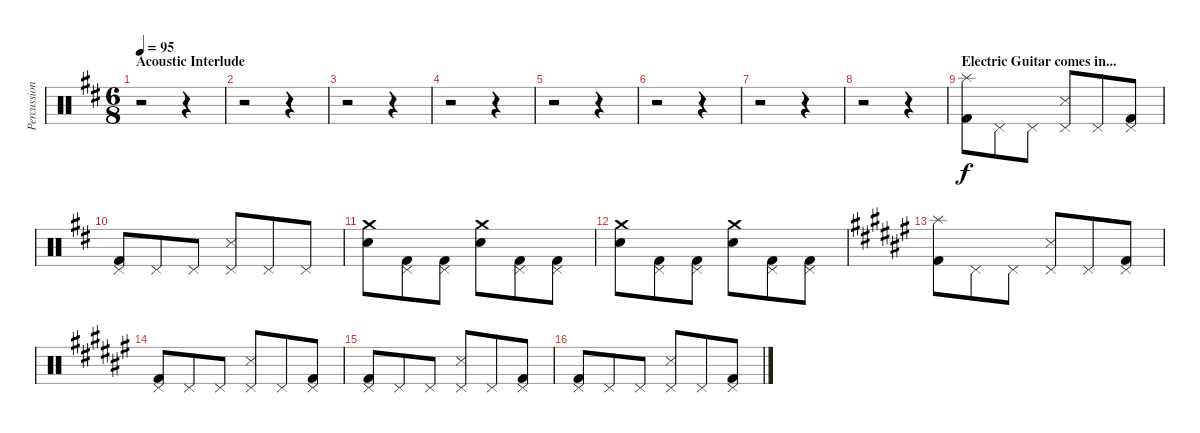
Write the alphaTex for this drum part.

\track ("Percussions" "Percussion") {instrument percussion}
\staff {score}
\articulation defaults
\ts (6 8)
\section ("" "Acoustic Interlude")
\tempo 95
\clef neutral
\ks d
r.2{dy f} r.4 |
r.2 r.4 |
r.2 r.4 |
r.2 r.4 |
r.2 r.4 |
r.2 r.4 |
r.2 r.4 |
r.2 r.4 |
\section ("" "Electric Guitar comes in...")
("Splash (hit)" "Kick (hit) 2").8 "Pedal Hi-Hat (hit)".8 "Pedal Hi-Hat (hit)".8 ("Pedal Hi-Hat (hit)" "Snare (side stick) 3").8 "Pedal Hi-Hat (hit)".8 ("Pedal Hi-Hat (hit)" "Kick (hit) 2").8 |
("Pedal Hi-Hat (hit)" "Kick (hit) 2").8 "Pedal Hi-Hat (hit)".8 "Pedal Hi-Hat (hit)".8 ("Pedal Hi-Hat (hit)" "Snare (side stick) 3").8 "Pedal Hi-Hat (hit)".8 "Pedal Hi-Hat (hit)".8 |
("Crash medium (hit)" "Electric Snare (hit)").8 ("Pedal Hi-Hat (hit)" "Kick (hit) 2").8 ("Pedal Hi-Hat (hit)" "Kick (hit) 2").8 ("Crash medium (hit)" "Electric Snare (hit)").8 ("Pedal Hi-Hat (hit)" "Kick (hit) 2").8 ("Pedal Hi-Hat (hit)" "Kick (hit) 2").8 |
("Crash medium (hit)" "Electric Snare (hit)").8 ("Pedal Hi-Hat (hit)" "Kick (hit) 2").8 ("Pedal Hi-Hat (hit)" "Kick (hit) 2").8 ("Crash medium (hit)" "Electric Snare (hit)").8 ("Pedal Hi-Hat (hit)" "Kick (hit) 2").8 ("Pedal Hi-Hat (hit)" "Kick (hit) 2").8 |
\ks d#minor
("Splash (hit)" "Kick (hit) 2").8 "Pedal Hi-Hat (hit)".8 "Pedal Hi-Hat (hit)".8 ("Pedal Hi-Hat (hit)" "Snare (side stick) 3").8 "Pedal Hi-Hat (hit)".8 ("Pedal Hi-Hat (hit)" "Kick (hit) 2").8 |
("Pedal Hi-Hat (hit)" "Kick (hit) 2").8 "Pedal Hi-Hat (hit)".8 "Pedal Hi-Hat (hit)".8 ("Pedal Hi-Hat (hit)" "Snare (side stick) 3").8 "Pedal Hi-Hat (hit)".8 ("Pedal Hi-Hat (hit)" "Kick (hit) 2").8 |
("Pedal Hi-Hat (hit)" "Kick (hit) 2").8 "Pedal Hi-Hat (hit)".8 "Pedal Hi-Hat (hit)".8 ("Pedal Hi-Hat (hit)" "Snare (side stick) 3").8 "Pedal Hi-Hat (hit)".8 ("Pedal Hi-Hat (hit)" "Kick (hit) 2").8 |
("Pedal Hi-Hat (hit)" "Kick (hit) 2").8 "Pedal Hi-Hat (hit)".8 "Pedal Hi-Hat (hit)".8 ("Pedal Hi-Hat (hit)" "Snare (side stick) 3").8 "Pedal Hi-Hat (hit)".8 ("Pedal Hi-Hat (hit)" "Kick (hit) 2").8
